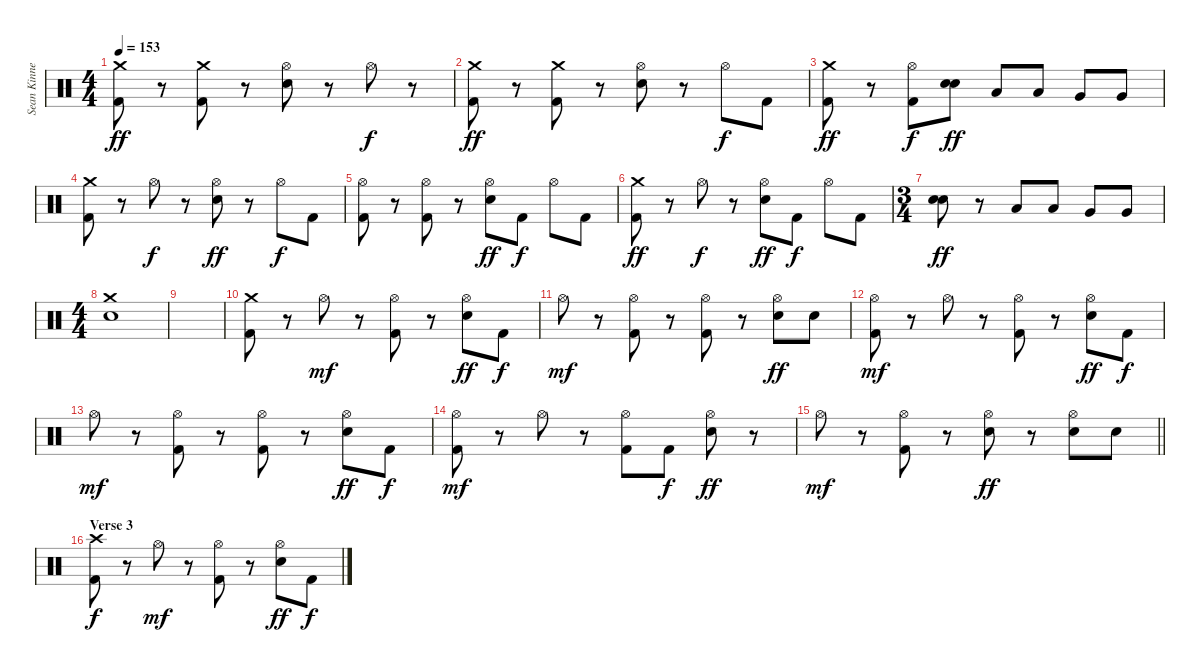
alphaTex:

\track ("Sean Kinney - Drums" "Sean Kinne") {instrument percussion}
\staff {score}
\articulation defaults
\ts (4 4)
\tempo 153
\clef neutral
\ks c
("Crash medium (hit)" "Kick (hit) 2").8{dy ff} r.8 ("Crash medium (hit)" "Kick (hit) 2").8 r.8 ("Hi-Hat (open)" "Snare (hit) 2").8 r.8 "Hi-Hat (open)".8{dy f} r.8 |
("Crash medium (hit)" "Kick (hit) 2").8{dy ff} r.8 ("Crash medium (hit)" "Kick (hit) 2").8 r.8 ("Hi-Hat (open)" "Snare (hit) 2").8 r.8 "Hi-Hat (open)".8{dy f} "Kick (hit) 2".8 |
("Crash medium (hit)" "Kick (hit) 2").8{dy ff} r.8 ("Hi-Hat (open)" "Kick (hit) 2").8{dy f} ("Snare (hit) 2" "Snare (hit) 2").8{dy ff} "Low Tom (hit)".8 "Low Tom (hit)".8 "Very Low Tom (hit)".8 "Very Low Tom (hit)".8 |
("Crash medium (hit)" "Kick (hit) 2").8 r.8 "Hi-Hat (open)".8{dy f} r.8 ("Hi-Hat (open)" "Snare (hit) 2").8{dy ff} r.8 "Hi-Hat (open)".8{dy f} "Kick (hit) 2".8 |
("Hi-Hat (open)" "Kick (hit) 2").8 r.8 ("Hi-Hat (open)" "Kick (hit) 2").8 r.8 ("Hi-Hat (open)" "Snare (hit) 2").8{dy ff} "Kick (hit) 2".8{dy f} "Hi-Hat (open)".8 "Kick (hit) 2".8 |
("Crash medium (hit)" "Kick (hit) 2").8{dy ff} r.8 "Hi-Hat (open)".8{dy f} r.8 ("Hi-Hat (open)" "Snare (hit) 2").8{dy ff} "Kick (hit) 2".8{dy f} "Hi-Hat (open)".8 "Kick (hit) 2".8 |
\ts (3 4)
("Snare (hit) 2" "Snare (hit) 2").8{dy ff} r.8 "Low Tom (hit)".8 "Low Tom (hit)".8 "Very Low Tom (hit)".8 "Very Low Tom (hit)".8 |
\ts (4 4)
("Crash medium (hit)" "Snare (hit) 2").1 |
|
("Crash medium (hit)" "Kick (hit) 2").8 r.8 "Hi-Hat (open)".8{dy mf} r.8 ("Hi-Hat (open)" "Kick (hit) 2").8 r.8 ("Hi-Hat (open)" "Snare (hit) 2").8{dy ff} "Kick (hit) 2".8{dy f} |
"Hi-Hat (open)".8{dy mf} r.8 ("Hi-Hat (open)" "Kick (hit) 2").8 r.8 ("Hi-Hat (open)" "Kick (hit) 2").8 r.8 ("Hi-Hat (open)" "Snare (hit) 2").8{dy ff} "Snare (hit) 2".8 |
("Hi-Hat (open)" "Kick (hit) 2").8{dy mf} r.8 "Hi-Hat (open)".8 r.8 ("Hi-Hat (open)" "Kick (hit) 2").8 r.8 ("Hi-Hat (open)" "Snare (hit) 2").8{dy ff} "Kick (hit) 2".8{dy f} |
"Hi-Hat (open)".8{dy mf} r.8 ("Hi-Hat (open)" "Kick (hit) 2").8 r.8 ("Hi-Hat (open)" "Kick (hit) 2").8 r.8 ("Hi-Hat (open)" "Snare (hit) 2").8{dy ff} "Kick (hit) 2".8{dy f} |
("Hi-Hat (open)" "Kick (hit) 2").8{dy mf} r.8 "Hi-Hat (open)".8 r.8 ("Hi-Hat (open)" "Kick (hit) 2").8 "Kick (hit) 2".8{dy f} ("Hi-Hat (open)" "Snare (hit) 2").8{dy ff} r.8 |
\barLineRight lightlight "Hi-Hat (open)".8{dy mf}
r.8 ("Hi-Hat (open)" "Kick (hit) 2").8 r.8 ("Hi-Hat (open)" "Snare (hit) 2").8{dy ff} r.8 ("Hi-Hat (open)" "Snare (hit) 2").8 "Snare (hit) 2".8 |
\section ("" "Verse 3")
("Crash high (hit)" "Kick (hit) 2").8{dy f} r.8 "Hi-Hat (open)".8{dy mf} r.8 ("Hi-Hat (open)" "Kick (hit) 2").8 r.8 ("Hi-Hat (open)" "Snare (hit) 2").8{dy ff} "Kick (hit) 2".8{dy f}
